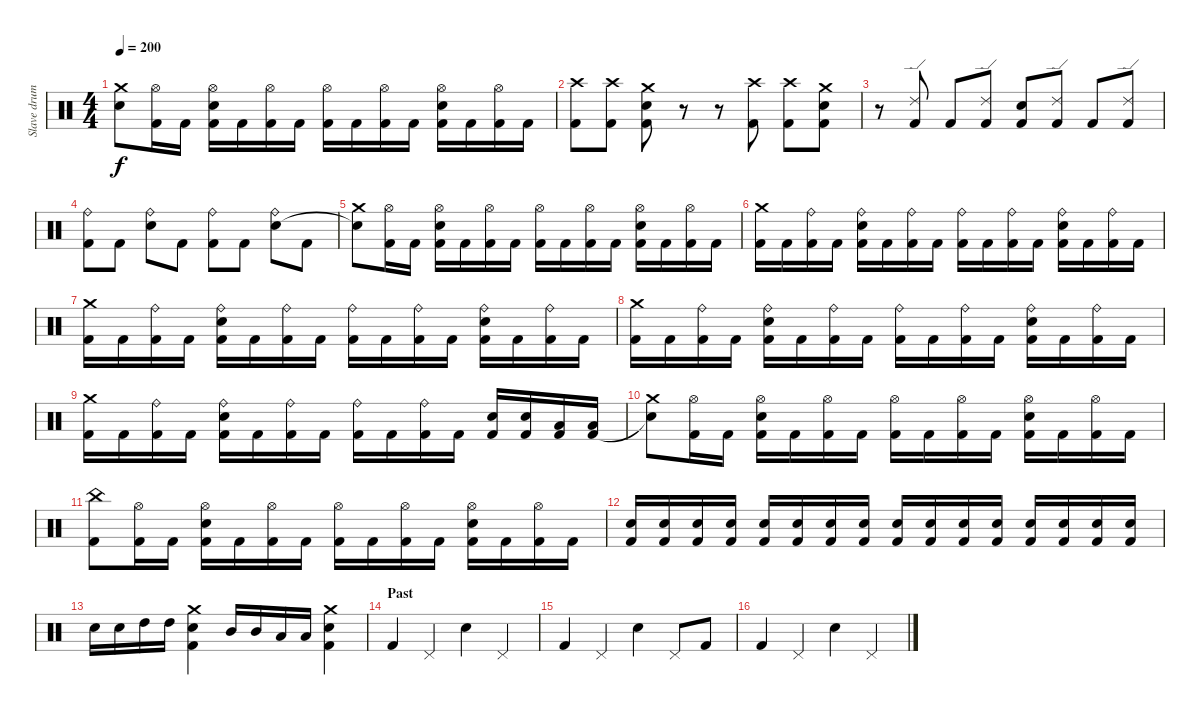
\track ("Slave drum" "Slave drum") {instrument percussion}
\staff {score}
\articulation defaults
\ts (4 4)
\tempo 200
\clef neutral
\ks c
("Crash medium (hit)" "Snare (hit)"{t}).8{dy f} ("Hi-Hat (open)" "Kick (hit) 2").16 "Kick (hit) 2".16 ("Hi-Hat (open)" "Electric Snare (hit)" "Kick (hit) 2").16 "Kick (hit) 2".16 ("Hi-Hat (open)" "Kick (hit) 2").16 "Kick (hit) 2".16 ("Hi-Hat (open)" "Kick (hit) 2").16 "Kick (hit) 2".16 ("Hi-Hat (open)" "Kick (hit) 2").16 "Kick (hit) 2".16 ("Hi-Hat (open)" "Electric Snare (hit)" "Kick (hit) 2").16 "Kick (hit) 2".16 ("Hi-Hat (open)" "Kick (hit) 2").16 "Kick (hit) 2".16 |
("Crash high (hit)" "Kick (hit) 2").8 ("Crash high (hit)" "Kick (hit) 2").8 ("Crash medium (hit)" "Electric Snare (hit)" "Kick (hit) 2").8 r.8 r.8 ("Crash high (hit)" "Kick (hit) 2").8 ("Crash high (hit)" "Kick (hit) 2").8 ("Crash medium (hit)" "Electric Snare (hit)" "Kick (hit) 2").8 |
r.8 ("Ride (edge) 2" "Kick (hit) 2").8 "Kick (hit) 2".8 ("Ride (edge) 2" "Kick (hit) 2").8 ("Electric Snare (hit)" "Kick (hit) 2").8 ("Ride (edge) 2" "Kick (hit) 2").8 "Kick (hit) 2".8 ("Ride (edge) 2" "Kick (hit) 2").8 |
("Ride (bell)" "Kick (hit) 2").8 "Kick (hit) 2".8 ("Ride (bell)" "Electric Snare (hit)").8 "Kick (hit) 2".8 ("Ride (bell)" "Kick (hit) 2").8 "Kick (hit) 2".8 ("Ride (bell)" "Electric Snare (hit)").8 "Kick (hit) 2".8 |
("Crash medium (hit)" "Snare (hit)"{t}).8 ("Hi-Hat (open)" "Kick (hit) 2").16 "Kick (hit) 2".16 ("Hi-Hat (open)" "Electric Snare (hit)" "Kick (hit) 2").16 "Kick (hit) 2".16 ("Hi-Hat (open)" "Kick (hit) 2").16 "Kick (hit) 2".16 ("Hi-Hat (open)" "Kick (hit) 2").16 "Kick (hit) 2".16 ("Hi-Hat (open)" "Kick (hit) 2").16 "Kick (hit) 2".16 ("Hi-Hat (open)" "Electric Snare (hit)" "Kick (hit) 2").16 "Kick (hit) 2".16 ("Hi-Hat (open)" "Kick (hit) 2").16 "Kick (hit) 2".16 |
("Crash medium (hit)" "Kick (hit) 2").16 "Kick (hit) 2".16 ("Ride (bell)" "Kick (hit) 2").16 "Kick (hit) 2".16 ("Ride (bell)" "Electric Snare (hit)" "Kick (hit) 2").16 "Kick (hit) 2".16 ("Ride (bell)" "Kick (hit) 2").16 "Kick (hit) 2".16 ("Ride (bell)" "Kick (hit) 2").16 "Kick (hit) 2".16 ("Ride (bell)" "Kick (hit) 2").16 "Kick (hit) 2".16 ("Ride (bell)" "Electric Snare (hit)" "Kick (hit) 2").16 "Kick (hit) 2".16 ("Ride (bell)" "Kick (hit) 2").16 "Kick (hit) 2".16 |
("Crash medium (hit)" "Kick (hit) 2").16 "Kick (hit) 2".16 ("Ride (bell)" "Kick (hit) 2").16 "Kick (hit) 2".16 ("Ride (bell)" "Electric Snare (hit)" "Kick (hit) 2").16 "Kick (hit) 2".16 ("Ride (bell)" "Kick (hit) 2").16 "Kick (hit) 2".16 ("Ride (bell)" "Kick (hit) 2").16 "Kick (hit) 2".16 ("Ride (bell)" "Kick (hit) 2").16 "Kick (hit) 2".16 ("Ride (bell)" "Electric Snare (hit)" "Kick (hit) 2").16 "Kick (hit) 2".16 ("Ride (bell)" "Kick (hit) 2").16 "Kick (hit) 2".16 |
("Crash medium (hit)" "Kick (hit) 2").16 "Kick (hit) 2".16 ("Ride (bell)" "Kick (hit) 2").16 "Kick (hit) 2".16 ("Ride (bell)" "Electric Snare (hit)" "Kick (hit) 2").16 "Kick (hit) 2".16 ("Ride (bell)" "Kick (hit) 2").16 "Kick (hit) 2".16 ("Ride (bell)" "Kick (hit) 2").16 "Kick (hit) 2".16 ("Ride (bell)" "Kick (hit) 2").16 "Kick (hit) 2".16 ("Ride (bell)" "Electric Snare (hit)" "Kick (hit) 2").16 "Kick (hit) 2".16 ("Ride (bell)" "Kick (hit) 2").16 "Kick (hit) 2".16 |
("Crash medium (hit)" "Kick (hit) 2").16 "Kick (hit) 2".16 ("Ride (bell)" "Kick (hit) 2").16 "Kick (hit) 2".16 ("Ride (bell)" "Electric Snare (hit)" "Kick (hit) 2").16 "Kick (hit) 2".16 ("Ride (bell)" "Kick (hit) 2").16 "Kick (hit) 2".16 ("Ride (bell)" "Kick (hit) 2").16 "Kick (hit) 2".16 ("Ride (bell)" "Kick (hit) 2").16 "Kick (hit) 2".16 ("Electric Snare (hit)" "Kick (hit) 2").16 ("Electric Snare (hit)" "Kick (hit) 2").16 ("Low Tom (hit)" "Kick (hit) 2").16 ("Low Tom (hit)" "Kick (hit) 2").16 |
("Crash medium (hit)" "Snare (hit)"{t}).8 ("Hi-Hat (open)" "Kick (hit) 2").16 "Kick (hit) 2".16 ("Hi-Hat (open)" "Electric Snare (hit)" "Kick (hit) 2").16 "Kick (hit) 2".16 ("Hi-Hat (open)" "Kick (hit) 2").16 "Kick (hit) 2".16 ("Hi-Hat (open)" "Kick (hit) 2").16 "Kick (hit) 2".16 ("Hi-Hat (open)" "Kick (hit) 2").16 "Kick (hit) 2".16 ("Hi-Hat (open)" "Electric Snare (hit)" "Kick (hit) 2").16 "Kick (hit) 2".16 ("Hi-Hat (open)" "Kick (hit) 2").16 "Kick (hit) 2".16 |
("China (hit)" "Kick (hit) 2").8 ("Hi-Hat (open)" "Kick (hit) 2").16 "Kick (hit) 2".16 ("Hi-Hat (open)" "Electric Snare (hit)" "Kick (hit) 2").16 "Kick (hit) 2".16 ("Hi-Hat (open)" "Kick (hit) 2").16 "Kick (hit) 2".16 ("Hi-Hat (open)" "Kick (hit) 2").16 "Kick (hit) 2".16 ("Hi-Hat (open)" "Kick (hit) 2").16 "Kick (hit) 2".16 ("Hi-Hat (open)" "Electric Snare (hit)" "Kick (hit) 2").16 "Kick (hit) 2".16 ("Hi-Hat (open)" "Kick (hit) 2").16 "Kick (hit) 2".16 |
("Electric Snare (hit)" "Kick (hit) 2").16 ("Electric Snare (hit)" "Kick (hit) 2").16 ("Electric Snare (hit)" "Kick (hit) 2").16 ("Electric Snare (hit)" "Kick (hit) 2").16 ("Electric Snare (hit)" "Kick (hit) 2").16 ("Electric Snare (hit)" "Kick (hit) 2").16 ("Electric Snare (hit)" "Kick (hit) 2").16 ("Electric Snare (hit)" "Kick (hit) 2").16 ("Electric Snare (hit)" "Kick (hit) 2").16 ("Electric Snare (hit)" "Kick (hit) 2").16 ("Electric Snare (hit)" "Kick (hit) 2").16 ("Electric Snare (hit)" "Kick (hit) 2").16 ("Electric Snare (hit)" "Kick (hit) 2").16 ("Electric Snare (hit)" "Kick (hit) 2").16 ("Electric Snare (hit)" "Kick (hit) 2").16 ("Electric Snare (hit)" "Kick (hit) 2").16 |
"Electric Snare (hit)".16 "Electric Snare (hit)".16 "High Tom (hit)".16 "High Tom (hit)".16 ("Crash medium (hit)" "Electric Snare (hit)" "Kick (hit) 2").4 "Mid Tom (hit)".16 "Mid Tom (hit)".16 "Low Tom (hit)".16 "Low Tom (hit)".16 ("Crash medium (hit)" "Electric Snare (hit)" "Kick (hit) 2").4 |
\section ("" "Past")
"Kick (hit) 2".4 "Pedal Hi-Hat (hit)".4 "Electric Snare (hit)".4 "Pedal Hi-Hat (hit)".4 |
"Kick (hit) 2".4 "Pedal Hi-Hat (hit)".4 "Electric Snare (hit)".4 "Pedal Hi-Hat (hit)".8 "Kick (hit) 2".8 |
"Kick (hit) 2".4 "Pedal Hi-Hat (hit)".4 "Electric Snare (hit)".4 "Pedal Hi-Hat (hit)".4
